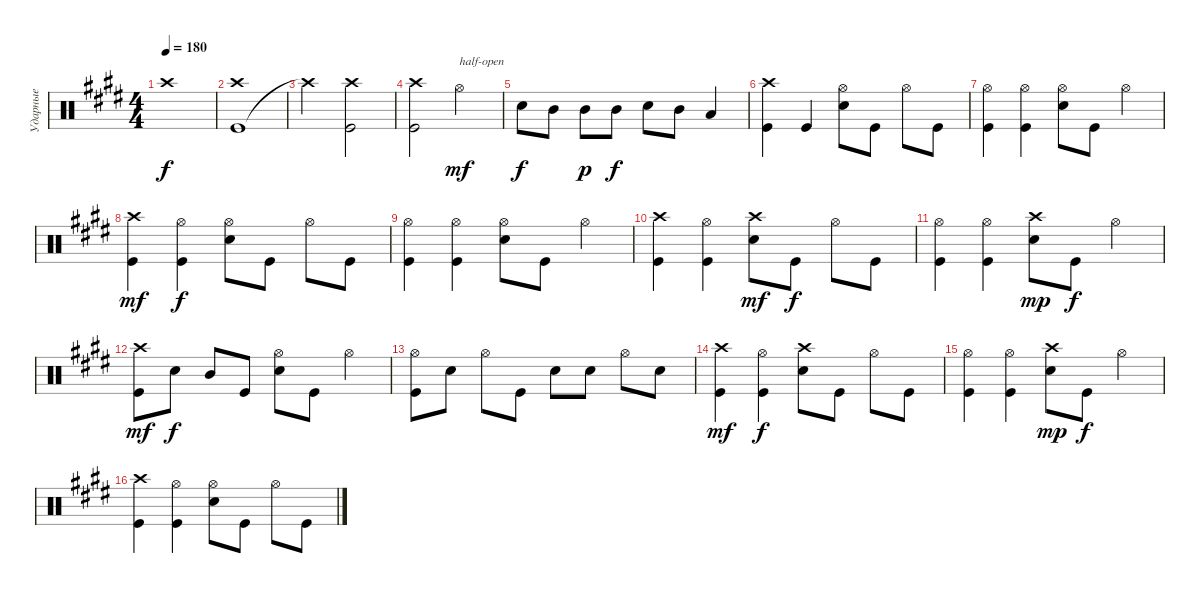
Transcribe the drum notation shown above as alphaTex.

\track ("Ударные" "Ударные") {instrument percussion}
\staff {score}
\articulation defaults
\ts (4 4)
\tempo 180
\clef neutral
\ks c#minor "Crash high (hit)"{t}.1{dy f}
|
("Kick (hit)" "Crash high (hit)").1 |
"Crash high (hit)"{t}.2 ("Kick (hit)" "Crash high (hit)").2 |
("Kick (hit)" "Crash high (hit)").2 "Hi-Hat (open)".2{txt "half-open" dy mf} |
"Snare (hit) 2".8{dy f} "Mid Tom (hit)".8 "Mid Tom (hit)".8{dy p} "Mid Tom (hit)".8{dy f} "Snare (hit) 2".8 "Mid Tom (hit)".8 "Low Tom (hit)".4 |
("Kick (hit)" "Crash high (hit)").4 "Kick (hit)".4 ("Snare (hit) 2" "Hi-Hat (open)").8 "Kick (hit)".8 "Hi-Hat (open)".8 "Kick (hit)".8 |
("Kick (hit)" "Hi-Hat (open)").4 ("Hi-Hat (open)" "Kick (hit)").4 ("Snare (hit) 2" "Hi-Hat (open)").8 "Kick (hit)".8 "Hi-Hat (open)".4 |
("Kick (hit)" "Crash high (hit)").4{dy mf} ("Kick (hit)" "Hi-Hat (open)").4{dy f} ("Snare (hit) 2" "Hi-Hat (open)").8 "Kick (hit)".8 "Hi-Hat (open)".8 "Kick (hit)".8 |
("Kick (hit)" "Hi-Hat (open)").4 ("Hi-Hat (open)" "Kick (hit)").4 ("Snare (hit) 2" "Hi-Hat (open)").8 "Kick (hit)".8 "Hi-Hat (open)".4 |
("Kick (hit)" "Crash high (hit)").4 ("Kick (hit)" "Hi-Hat (open)").4 ("Snare (hit) 2" "Crash high (hit)").8{dy mf} "Kick (hit)".8{dy f} "Hi-Hat (open)".8 "Kick (hit)".8 |
("Kick (hit)" "Hi-Hat (open)").4 ("Hi-Hat (open)" "Kick (hit)").4 ("Snare (hit) 2" "Crash high (hit)").8{dy mp} "Kick (hit)".8{dy f} "Hi-Hat (open)".4 |
("Kick (hit)" "Crash high (hit)").8{dy mf} "Snare (hit) 2".8{dy f} "Mid Tom (hit)".8 "Kick (hit)".8 ("Snare (hit) 2" "Hi-Hat (open)").8 "Kick (hit)".8 "Hi-Hat (open)".4 |
("Kick (hit)" "Hi-Hat (open)").8 "Snare (hit) 2".8 "Hi-Hat (open)".8 "Kick (hit)".8 "Snare (hit) 2".8 "Snare (hit) 2".8 "Hi-Hat (open)".8 "Snare (hit) 2".8 |
("Kick (hit)" "Crash high (hit)").4{dy mf} ("Kick (hit)" "Hi-Hat (open)").4{dy f} ("Snare (hit) 2" "Crash high (hit)").8 "Kick (hit)".8 "Hi-Hat (open)".8 "Kick (hit)".8 |
("Kick (hit)" "Hi-Hat (open)").4 ("Hi-Hat (open)" "Kick (hit)").4 ("Snare (hit) 2" "Crash high (hit)").8{dy mp} "Kick (hit)".8{dy f} "Hi-Hat (open)".4 |
("Kick (hit)" "Crash high (hit)").4 ("Kick (hit)" "Hi-Hat (open)").4 ("Snare (hit) 2" "Hi-Hat (open)").8 "Kick (hit)".8 "Hi-Hat (open)".8 "Kick (hit)".8
